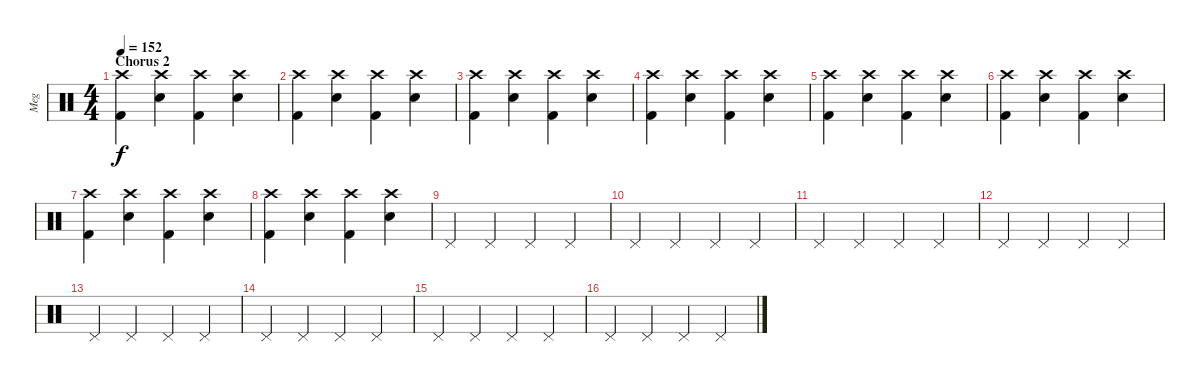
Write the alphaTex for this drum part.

\track ("Meg" "Meg") {instrument percussion}
\staff {score}
\articulation defaults
\ts (4 4)
\section ("" "Chorus 2")
\tempo 152
\clef neutral
\ks c
("Crash high (hit)" "Kick (hit) 2").4{dy f} ("Crash high (hit)" "Electric Snare (hit)").4 ("Crash high (hit)" "Kick (hit) 2").4 ("Crash high (hit)" "Electric Snare (hit)").4 |
("Crash high (hit)" "Kick (hit) 2").4 ("Crash high (hit)" "Electric Snare (hit)").4 ("Crash high (hit)" "Kick (hit) 2").4 ("Crash high (hit)" "Electric Snare (hit)").4 |
("Crash high (hit)" "Kick (hit) 2").4 ("Crash high (hit)" "Electric Snare (hit)").4 ("Crash high (hit)" "Kick (hit) 2").4 ("Crash high (hit)" "Electric Snare (hit)").4 |
("Crash high (hit)" "Kick (hit) 2").4 ("Crash high (hit)" "Electric Snare (hit)").4 ("Crash high (hit)" "Kick (hit) 2").4 ("Crash high (hit)" "Electric Snare (hit)").4 |
("Crash high (hit)" "Kick (hit) 2").4 ("Crash high (hit)" "Electric Snare (hit)").4 ("Crash high (hit)" "Kick (hit) 2").4 ("Crash high (hit)" "Electric Snare (hit)").4 |
("Crash high (hit)" "Kick (hit) 2").4 ("Crash high (hit)" "Electric Snare (hit)").4 ("Crash high (hit)" "Kick (hit) 2").4 ("Crash high (hit)" "Electric Snare (hit)").4 |
("Crash high (hit)" "Kick (hit) 2").4 ("Crash high (hit)" "Electric Snare (hit)").4 ("Crash high (hit)" "Kick (hit) 2").4 ("Crash high (hit)" "Electric Snare (hit)").4 |
("Crash high (hit)" "Kick (hit) 2").4 ("Crash high (hit)" "Electric Snare (hit)").4 ("Crash high (hit)" "Kick (hit) 2").4 ("Crash high (hit)" "Electric Snare (hit)").4 |
"Pedal Hi-Hat (hit)".4 "Pedal Hi-Hat (hit)".4 "Pedal Hi-Hat (hit)".4 "Pedal Hi-Hat (hit)".4 |
"Pedal Hi-Hat (hit)".4 "Pedal Hi-Hat (hit)".4 "Pedal Hi-Hat (hit)".4 "Pedal Hi-Hat (hit)".4 |
"Pedal Hi-Hat (hit)".4 "Pedal Hi-Hat (hit)".4 "Pedal Hi-Hat (hit)".4 "Pedal Hi-Hat (hit)".4 |
"Pedal Hi-Hat (hit)".4 "Pedal Hi-Hat (hit)".4 "Pedal Hi-Hat (hit)".4 "Pedal Hi-Hat (hit)".4 |
"Pedal Hi-Hat (hit)".4 "Pedal Hi-Hat (hit)".4 "Pedal Hi-Hat (hit)".4 "Pedal Hi-Hat (hit)".4 |
"Pedal Hi-Hat (hit)".4 "Pedal Hi-Hat (hit)".4 "Pedal Hi-Hat (hit)".4 "Pedal Hi-Hat (hit)".4 |
"Pedal Hi-Hat (hit)".4 "Pedal Hi-Hat (hit)".4 "Pedal Hi-Hat (hit)".4 "Pedal Hi-Hat (hit)".4 |
"Pedal Hi-Hat (hit)".4 "Pedal Hi-Hat (hit)".4 "Pedal Hi-Hat (hit)".4 "Pedal Hi-Hat (hit)".4
